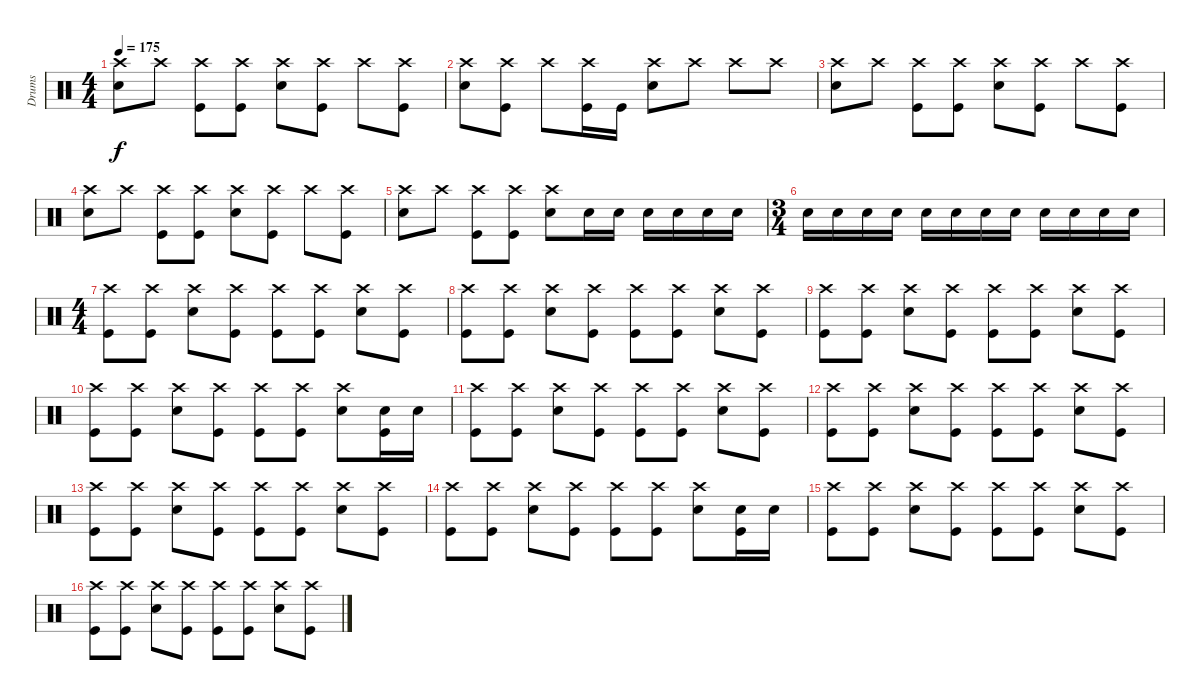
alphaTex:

\track ("Drums" "Drums") {instrument percussion}
\staff {score}
\articulation defaults
\ts (4 4)
\tempo 175
\clef neutral
\ks c
("Crash high (hit)" "Snare (hit) 2").8{dy f} "Crash high (hit)".8 ("Crash high (hit)" "Kick (hit)").8 ("Crash high (hit)" "Kick (hit)").8 ("Crash high (hit)" "Snare (hit) 2").8 ("Crash high (hit)" "Kick (hit)").8 "Crash high (hit)".8 ("Crash high (hit)" "Kick (hit)").8 |
("Crash high (hit)" "Snare (hit) 2").8 ("Crash high (hit)" "Kick (hit)").8 "Crash high (hit)".8 ("Crash high (hit)" "Kick (hit)").16 "Kick (hit)".16 ("Crash high (hit)" "Snare (hit) 2").8 "Crash high (hit)".8 "Crash high (hit)".8 "Crash high (hit)".8 |
("Crash high (hit)" "Snare (hit) 2").8 "Crash high (hit)".8 ("Crash high (hit)" "Kick (hit)").8 ("Crash high (hit)" "Kick (hit)").8 ("Crash high (hit)" "Snare (hit) 2").8 ("Crash high (hit)" "Kick (hit)").8 "Crash high (hit)".8 ("Crash high (hit)" "Kick (hit)").8 |
("Crash high (hit)" "Snare (hit) 2").8 "Crash high (hit)".8 ("Crash high (hit)" "Kick (hit)").8 ("Crash high (hit)" "Kick (hit)").8 ("Crash high (hit)" "Snare (hit) 2").8 ("Crash high (hit)" "Kick (hit)").8 "Crash high (hit)".8 ("Crash high (hit)" "Kick (hit)").8 |
("Crash high (hit)" "Snare (hit) 2").8 "Crash high (hit)".8 ("Crash high (hit)" "Kick (hit)").8 ("Crash high (hit)" "Kick (hit)").8 ("Crash high (hit)" "Snare (hit) 2").8 "Snare (hit) 2".16 "Snare (hit) 2".16 "Snare (hit) 2".16 "Snare (hit) 2".16 "Snare (hit) 2".16 "Snare (hit) 2".16 |
\ts (3 4)
"Snare (hit) 2".16 "Snare (hit) 2".16 "Snare (hit) 2".16 "Snare (hit) 2".16 "Snare (hit) 2".16 "Snare (hit) 2".16 "Snare (hit) 2".16 "Snare (hit) 2".16 "Snare (hit) 2".16 "Snare (hit) 2".16 "Snare (hit) 2".16 "Snare (hit) 2".16 |
\ts (4 4)
("Crash high (hit)" "Kick (hit)").8 ("Crash high (hit)" "Kick (hit)").8 ("Crash high (hit)" "Snare (hit) 2").8 ("Crash high (hit)" "Kick (hit)").8 ("Crash high (hit)" "Kick (hit)").8 ("Crash high (hit)" "Kick (hit)").8 ("Crash high (hit)" "Snare (hit) 2").8 ("Crash high (hit)" "Kick (hit)").8 |
("Crash high (hit)" "Kick (hit)").8 ("Crash high (hit)" "Kick (hit)").8 ("Crash high (hit)" "Snare (hit) 2").8 ("Crash high (hit)" "Kick (hit)").8 ("Crash high (hit)" "Kick (hit)").8 ("Crash high (hit)" "Kick (hit)").8 ("Crash high (hit)" "Snare (hit) 2").8 ("Crash high (hit)" "Kick (hit)").8 |
("Crash high (hit)" "Kick (hit)").8 ("Crash high (hit)" "Kick (hit)").8 ("Crash high (hit)" "Snare (hit) 2").8 ("Crash high (hit)" "Kick (hit)").8 ("Crash high (hit)" "Kick (hit)").8 ("Crash high (hit)" "Kick (hit)").8 ("Crash high (hit)" "Snare (hit) 2").8 ("Crash high (hit)" "Kick (hit)").8 |
("Crash high (hit)" "Kick (hit)").8 ("Crash high (hit)" "Kick (hit)").8 ("Crash high (hit)" "Snare (hit) 2").8 ("Crash high (hit)" "Kick (hit)").8 ("Crash high (hit)" "Kick (hit)").8 ("Crash high (hit)" "Kick (hit)").8 ("Crash high (hit)" "Snare (hit) 2").8 ("Snare (hit) 2" "Kick (hit)").16 "Snare (hit) 2".16 |
("Crash high (hit)" "Kick (hit)").8 ("Crash high (hit)" "Kick (hit)").8 ("Crash high (hit)" "Snare (hit) 2").8 ("Crash high (hit)" "Kick (hit)").8 ("Crash high (hit)" "Kick (hit)").8 ("Crash high (hit)" "Kick (hit)").8 ("Crash high (hit)" "Snare (hit) 2").8 ("Crash high (hit)" "Kick (hit)").8 |
("Crash high (hit)" "Kick (hit)").8 ("Crash high (hit)" "Kick (hit)").8 ("Crash high (hit)" "Snare (hit) 2").8 ("Crash high (hit)" "Kick (hit)").8 ("Crash high (hit)" "Kick (hit)").8 ("Crash high (hit)" "Kick (hit)").8 ("Crash high (hit)" "Snare (hit) 2").8 ("Crash high (hit)" "Kick (hit)").8 |
("Crash high (hit)" "Kick (hit)").8 ("Crash high (hit)" "Kick (hit)").8 ("Crash high (hit)" "Snare (hit) 2").8 ("Crash high (hit)" "Kick (hit)").8 ("Crash high (hit)" "Kick (hit)").8 ("Crash high (hit)" "Kick (hit)").8 ("Crash high (hit)" "Snare (hit) 2").8 ("Crash high (hit)" "Kick (hit)").8 |
("Crash high (hit)" "Kick (hit)").8 ("Crash high (hit)" "Kick (hit)").8 ("Crash high (hit)" "Snare (hit) 2").8 ("Crash high (hit)" "Kick (hit)").8 ("Crash high (hit)" "Kick (hit)").8 ("Crash high (hit)" "Kick (hit)").8 ("Crash high (hit)" "Snare (hit) 2").8 ("Snare (hit) 2" "Kick (hit)").16 "Snare (hit) 2".16 |
("Crash high (hit)" "Kick (hit)").8 ("Crash high (hit)" "Kick (hit)").8 ("Crash high (hit)" "Snare (hit) 2").8 ("Crash high (hit)" "Kick (hit)").8 ("Crash high (hit)" "Kick (hit)").8 ("Crash high (hit)" "Kick (hit)").8 ("Crash high (hit)" "Snare (hit) 2").8 ("Crash high (hit)" "Kick (hit)").8 |
("Crash high (hit)" "Kick (hit)").8 ("Crash high (hit)" "Kick (hit)").8 ("Crash high (hit)" "Snare (hit) 2").8 ("Crash high (hit)" "Kick (hit)").8 ("Crash high (hit)" "Kick (hit)").8 ("Crash high (hit)" "Kick (hit)").8 ("Crash high (hit)" "Snare (hit) 2").8 ("Crash high (hit)" "Kick (hit)").8
